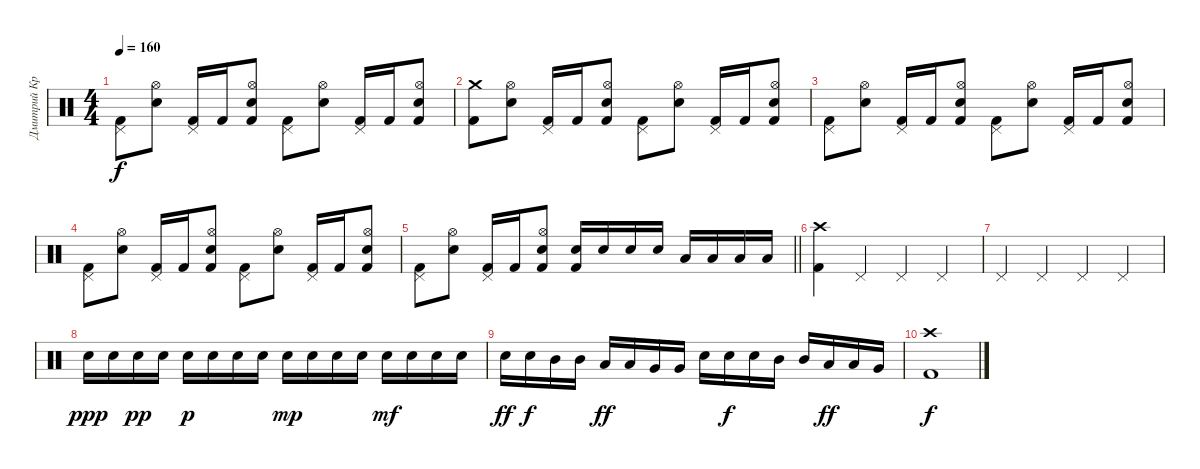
\track ("Дмитрий Кривенков" "Дмитрий Кр") {instrument percussion}
\staff {score}
\articulation defaults
\ts (4 4)
\tempo 160
\clef neutral
\ks c
("Pedal Hi-Hat (hit)" "Kick (hit) 2").8{dy f} ("Hi-Hat (open)" "Electric Snare (hit)").8 ("Pedal Hi-Hat (hit)" "Kick (hit) 2").16 "Kick (hit) 2".16 ("Hi-Hat (open)" "Electric Snare (hit)" "Kick (hit) 2").8 ("Pedal Hi-Hat (hit)" "Kick (hit) 2").8 ("Hi-Hat (open)" "Electric Snare (hit)").8 ("Pedal Hi-Hat (hit)" "Kick (hit) 2").16 "Kick (hit) 2".16 ("Hi-Hat (open)" "Electric Snare (hit)" "Kick (hit) 2").8 |
("Crash medium (hit)" "Kick (hit) 2").8 ("Hi-Hat (open)" "Electric Snare (hit)").8 ("Pedal Hi-Hat (hit)" "Kick (hit) 2").16 "Kick (hit) 2".16 ("Hi-Hat (open)" "Electric Snare (hit)" "Kick (hit) 2").8 ("Pedal Hi-Hat (hit)" "Kick (hit) 2").8 ("Hi-Hat (open)" "Electric Snare (hit)").8 ("Pedal Hi-Hat (hit)" "Kick (hit) 2").16 "Kick (hit) 2".16 ("Hi-Hat (open)" "Electric Snare (hit)" "Kick (hit) 2").8 |
("Pedal Hi-Hat (hit)" "Kick (hit) 2").8 ("Hi-Hat (open)" "Electric Snare (hit)").8 ("Pedal Hi-Hat (hit)" "Kick (hit) 2").16 "Kick (hit) 2".16 ("Hi-Hat (open)" "Electric Snare (hit)" "Kick (hit) 2").8 ("Pedal Hi-Hat (hit)" "Kick (hit) 2").8 ("Hi-Hat (open)" "Electric Snare (hit)").8 ("Pedal Hi-Hat (hit)" "Kick (hit) 2").16 "Kick (hit) 2".16 ("Hi-Hat (open)" "Electric Snare (hit)" "Kick (hit) 2").8 |
("Pedal Hi-Hat (hit)" "Kick (hit) 2").8 ("Hi-Hat (open)" "Electric Snare (hit)").8 ("Pedal Hi-Hat (hit)" "Kick (hit) 2").16 "Kick (hit) 2".16 ("Hi-Hat (open)" "Electric Snare (hit)" "Kick (hit) 2").8 ("Pedal Hi-Hat (hit)" "Kick (hit) 2").8 ("Hi-Hat (open)" "Electric Snare (hit)").8 ("Pedal Hi-Hat (hit)" "Kick (hit) 2").16 "Kick (hit) 2".16 ("Hi-Hat (open)" "Electric Snare (hit)" "Kick (hit) 2").8 |
\barLineRight lightlight
("Pedal Hi-Hat (hit)" "Kick (hit) 2").8 ("Hi-Hat (open)" "Electric Snare (hit)").8 ("Pedal Hi-Hat (hit)" "Kick (hit) 2").16 "Kick (hit) 2".16 ("Hi-Hat (open)" "Electric Snare (hit)" "Kick (hit) 2").8 ("Electric Snare (hit)" "Kick (hit) 2").16 "Electric Snare (hit)".16 "Electric Snare (hit)".16 "Electric Snare (hit)".16 "Low Tom (hit)".16 "Low Tom (hit)".16 "Low Tom (hit)".16 "Low Tom (hit)".16 |
("Crash high (hit)" "Kick (hit) 2").4 "Pedal Hi-Hat (hit)".4 "Pedal Hi-Hat (hit)".4 "Pedal Hi-Hat (hit)".4 |
"Pedal Hi-Hat (hit)".4 "Pedal Hi-Hat (hit)".4 "Pedal Hi-Hat (hit)".4 "Pedal Hi-Hat (hit)".4 |
"Electric Snare (hit)".16{dy ppp} "Electric Snare (hit)".16 "Electric Snare (hit)".16{dy pp} "Electric Snare (hit)".16 "Electric Snare (hit)".16{dy p} "Electric Snare (hit)".16 "Electric Snare (hit)".16 "Electric Snare (hit)".16 "Electric Snare (hit)".16{dy mp} "Electric Snare (hit)".16 "Electric Snare (hit)".16 "Electric Snare (hit)".16 "Electric Snare (hit)".16{dy mf} "Electric Snare (hit)".16 "Electric Snare (hit)".16 "Electric Snare (hit)".16 |
"Electric Snare (hit)".16{dy ff} "Electric Snare (hit)".16{dy f} "Mid Tom (hit)".16 "Mid Tom (hit)".16 "Low Tom (hit)".16{dy ff} "Low Tom (hit)".16 "Very Low Tom (hit)".16 "Very Low Tom (hit)".16 "Electric Snare (hit)".16 "Electric Snare (hit)".16{dy f} "Electric Snare (hit)".16 "Mid Tom (hit)".16 "Mid Tom (hit)".16 "Low Tom (hit)".16{dy ff} "Low Tom (hit)".16 "Very Low Tom (hit)".16 |
("Crash high (hit)" "Kick (hit) 2").1{dy f}
